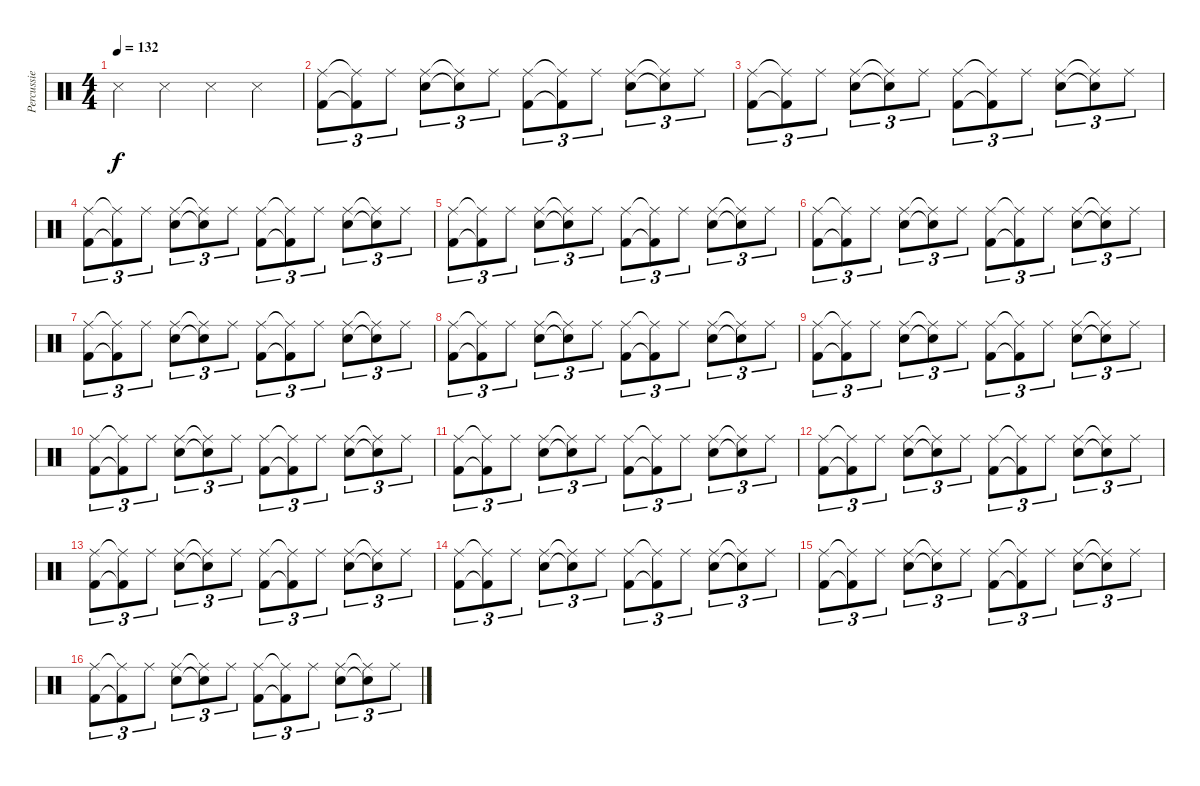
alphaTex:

\track ("Percussie" "Percussie") {instrument percussion}
\staff {score}
\articulation defaults
\ts (4 4)
\tempo 132
\clef neutral
\ks c "Snare (side stick) 3".4{dy f} "Snare (side stick) 3".4 "Snare (side stick) 3".4 "Snare (side stick) 3".4
|
("Kick (hit) 2" "Ride (middle)").8{tu (3 2)} ("Kick (hit) 2"{t} "Ride (middle)"{t}).8{tu (3 2)} "Ride (middle)".8{tu (3 2)} ("Electric Snare (hit)" "Ride (middle)").8{tu (3 2)} ("Electric Snare (hit)"{t} "Ride (middle)"{t}).8{tu (3 2)} "Ride (middle)".8{tu (3 2)} ("Kick (hit) 2" "Ride (middle)").8{tu (3 2)} ("Kick (hit) 2"{t} "Ride (middle)"{t}).8{tu (3 2)} "Ride (middle)".8{tu (3 2)} ("Electric Snare (hit)" "Ride (middle)").8{tu (3 2)} ("Electric Snare (hit)"{t} "Ride (middle)"{t}).8{tu (3 2)} "Ride (middle)".8{tu (3 2)} |
("Kick (hit) 2" "Ride (middle)").8{tu (3 2)} ("Kick (hit) 2"{t} "Ride (middle)"{t}).8{tu (3 2)} "Ride (middle)".8{tu (3 2)} ("Electric Snare (hit)" "Ride (middle)").8{tu (3 2)} ("Electric Snare (hit)"{t} "Ride (middle)"{t}).8{tu (3 2)} "Ride (middle)".8{tu (3 2)} ("Kick (hit) 2" "Ride (middle)").8{tu (3 2)} ("Kick (hit) 2"{t} "Ride (middle)"{t}).8{tu (3 2)} "Ride (middle)".8{tu (3 2)} ("Electric Snare (hit)" "Ride (middle)").8{tu (3 2)} ("Electric Snare (hit)"{t} "Ride (middle)"{t}).8{tu (3 2)} "Ride (middle)".8{tu (3 2)} |
("Kick (hit) 2" "Ride (middle)").8{tu (3 2)} ("Kick (hit) 2"{t} "Ride (middle)"{t}).8{tu (3 2)} "Ride (middle)".8{tu (3 2)} ("Electric Snare (hit)" "Ride (middle)").8{tu (3 2)} ("Electric Snare (hit)"{t} "Ride (middle)"{t}).8{tu (3 2)} "Ride (middle)".8{tu (3 2)} ("Kick (hit) 2" "Ride (middle)").8{tu (3 2)} ("Kick (hit) 2"{t} "Ride (middle)"{t}).8{tu (3 2)} "Ride (middle)".8{tu (3 2)} ("Electric Snare (hit)" "Ride (middle)").8{tu (3 2)} ("Electric Snare (hit)"{t} "Ride (middle)"{t}).8{tu (3 2)} "Ride (middle)".8{tu (3 2)} |
("Kick (hit) 2" "Ride (middle)").8{tu (3 2)} ("Kick (hit) 2"{t} "Ride (middle)"{t}).8{tu (3 2)} "Ride (middle)".8{tu (3 2)} ("Electric Snare (hit)" "Ride (middle)").8{tu (3 2)} ("Electric Snare (hit)"{t} "Ride (middle)"{t}).8{tu (3 2)} "Ride (middle)".8{tu (3 2)} ("Kick (hit) 2" "Ride (middle)").8{tu (3 2)} ("Kick (hit) 2"{t} "Ride (middle)"{t}).8{tu (3 2)} "Ride (middle)".8{tu (3 2)} ("Electric Snare (hit)" "Ride (middle)").8{tu (3 2)} ("Electric Snare (hit)"{t} "Ride (middle)"{t}).8{tu (3 2)} "Ride (middle)".8{tu (3 2)} |
("Kick (hit) 2" "Ride (middle)").8{tu (3 2)} ("Kick (hit) 2"{t} "Ride (middle)"{t}).8{tu (3 2)} "Ride (middle)".8{tu (3 2)} ("Electric Snare (hit)" "Ride (middle)").8{tu (3 2)} ("Electric Snare (hit)"{t} "Ride (middle)"{t}).8{tu (3 2)} "Ride (middle)".8{tu (3 2)} ("Kick (hit) 2" "Ride (middle)").8{tu (3 2)} ("Kick (hit) 2"{t} "Ride (middle)"{t}).8{tu (3 2)} "Ride (middle)".8{tu (3 2)} ("Electric Snare (hit)" "Ride (middle)").8{tu (3 2)} ("Electric Snare (hit)"{t} "Ride (middle)"{t}).8{tu (3 2)} "Ride (middle)".8{tu (3 2)} |
("Kick (hit) 2" "Ride (middle)").8{tu (3 2)} ("Kick (hit) 2"{t} "Ride (middle)"{t}).8{tu (3 2)} "Ride (middle)".8{tu (3 2)} ("Electric Snare (hit)" "Ride (middle)").8{tu (3 2)} ("Electric Snare (hit)"{t} "Ride (middle)"{t}).8{tu (3 2)} "Ride (middle)".8{tu (3 2)} ("Kick (hit) 2" "Ride (middle)").8{tu (3 2)} ("Kick (hit) 2"{t} "Ride (middle)"{t}).8{tu (3 2)} "Ride (middle)".8{tu (3 2)} ("Electric Snare (hit)" "Ride (middle)").8{tu (3 2)} ("Electric Snare (hit)"{t} "Ride (middle)"{t}).8{tu (3 2)} "Ride (middle)".8{tu (3 2)} |
("Kick (hit) 2" "Ride (middle)").8{tu (3 2)} ("Kick (hit) 2"{t} "Ride (middle)"{t}).8{tu (3 2)} "Ride (middle)".8{tu (3 2)} ("Electric Snare (hit)" "Ride (middle)").8{tu (3 2)} ("Electric Snare (hit)"{t} "Ride (middle)"{t}).8{tu (3 2)} "Ride (middle)".8{tu (3 2)} ("Kick (hit) 2" "Ride (middle)").8{tu (3 2)} ("Kick (hit) 2"{t} "Ride (middle)"{t}).8{tu (3 2)} "Ride (middle)".8{tu (3 2)} ("Electric Snare (hit)" "Ride (middle)").8{tu (3 2)} ("Electric Snare (hit)"{t} "Ride (middle)"{t}).8{tu (3 2)} "Ride (middle)".8{tu (3 2)} |
("Kick (hit) 2" "Ride (middle)").8{tu (3 2)} ("Kick (hit) 2"{t} "Ride (middle)"{t}).8{tu (3 2)} "Ride (middle)".8{tu (3 2)} ("Electric Snare (hit)" "Ride (middle)").8{tu (3 2)} ("Electric Snare (hit)"{t} "Ride (middle)"{t}).8{tu (3 2)} "Ride (middle)".8{tu (3 2)} ("Kick (hit) 2" "Ride (middle)").8{tu (3 2)} ("Kick (hit) 2"{t} "Ride (middle)"{t}).8{tu (3 2)} "Ride (middle)".8{tu (3 2)} ("Electric Snare (hit)" "Ride (middle)").8{tu (3 2)} ("Electric Snare (hit)"{t} "Ride (middle)"{t}).8{tu (3 2)} "Ride (middle)".8{tu (3 2)} |
("Kick (hit) 2" "Ride (middle)").8{tu (3 2)} ("Kick (hit) 2"{t} "Ride (middle)"{t}).8{tu (3 2)} "Ride (middle)".8{tu (3 2)} ("Electric Snare (hit)" "Ride (middle)").8{tu (3 2)} ("Electric Snare (hit)"{t} "Ride (middle)"{t}).8{tu (3 2)} "Ride (middle)".8{tu (3 2)} ("Kick (hit) 2" "Ride (middle)").8{tu (3 2)} ("Kick (hit) 2"{t} "Ride (middle)"{t}).8{tu (3 2)} "Ride (middle)".8{tu (3 2)} ("Electric Snare (hit)" "Ride (middle)").8{tu (3 2)} ("Electric Snare (hit)"{t} "Ride (middle)"{t}).8{tu (3 2)} "Ride (middle)".8{tu (3 2)} |
("Kick (hit) 2" "Ride (middle)").8{tu (3 2)} ("Kick (hit) 2"{t} "Ride (middle)"{t}).8{tu (3 2)} "Ride (middle)".8{tu (3 2)} ("Electric Snare (hit)" "Ride (middle)").8{tu (3 2)} ("Electric Snare (hit)"{t} "Ride (middle)"{t}).8{tu (3 2)} "Ride (middle)".8{tu (3 2)} ("Kick (hit) 2" "Ride (middle)").8{tu (3 2)} ("Kick (hit) 2"{t} "Ride (middle)"{t}).8{tu (3 2)} "Ride (middle)".8{tu (3 2)} ("Electric Snare (hit)" "Ride (middle)").8{tu (3 2)} ("Electric Snare (hit)"{t} "Ride (middle)"{t}).8{tu (3 2)} "Ride (middle)".8{tu (3 2)} |
("Kick (hit) 2" "Ride (middle)").8{tu (3 2)} ("Kick (hit) 2"{t} "Ride (middle)"{t}).8{tu (3 2)} "Ride (middle)".8{tu (3 2)} ("Electric Snare (hit)" "Ride (middle)").8{tu (3 2)} ("Electric Snare (hit)"{t} "Ride (middle)"{t}).8{tu (3 2)} "Ride (middle)".8{tu (3 2)} ("Kick (hit) 2" "Ride (middle)").8{tu (3 2)} ("Kick (hit) 2"{t} "Ride (middle)"{t}).8{tu (3 2)} "Ride (middle)".8{tu (3 2)} ("Electric Snare (hit)" "Ride (middle)").8{tu (3 2)} ("Electric Snare (hit)"{t} "Ride (middle)"{t}).8{tu (3 2)} "Ride (middle)".8{tu (3 2)} |
("Kick (hit) 2" "Ride (middle)").8{tu (3 2)} ("Kick (hit) 2"{t} "Ride (middle)"{t}).8{tu (3 2)} "Ride (middle)".8{tu (3 2)} ("Electric Snare (hit)" "Ride (middle)").8{tu (3 2)} ("Electric Snare (hit)"{t} "Ride (middle)"{t}).8{tu (3 2)} "Ride (middle)".8{tu (3 2)} ("Kick (hit) 2" "Ride (middle)").8{tu (3 2)} ("Kick (hit) 2"{t} "Ride (middle)"{t}).8{tu (3 2)} "Ride (middle)".8{tu (3 2)} ("Electric Snare (hit)" "Ride (middle)").8{tu (3 2)} ("Electric Snare (hit)"{t} "Ride (middle)"{t}).8{tu (3 2)} "Ride (middle)".8{tu (3 2)} |
("Kick (hit) 2" "Ride (middle)").8{tu (3 2)} ("Kick (hit) 2"{t} "Ride (middle)"{t}).8{tu (3 2)} "Ride (middle)".8{tu (3 2)} ("Electric Snare (hit)" "Ride (middle)").8{tu (3 2)} ("Electric Snare (hit)"{t} "Ride (middle)"{t}).8{tu (3 2)} "Ride (middle)".8{tu (3 2)} ("Kick (hit) 2" "Ride (middle)").8{tu (3 2)} ("Kick (hit) 2"{t} "Ride (middle)"{t}).8{tu (3 2)} "Ride (middle)".8{tu (3 2)} ("Electric Snare (hit)" "Ride (middle)").8{tu (3 2)} ("Electric Snare (hit)"{t} "Ride (middle)"{t}).8{tu (3 2)} "Ride (middle)".8{tu (3 2)} |
("Kick (hit) 2" "Ride (middle)").8{tu (3 2)} ("Kick (hit) 2"{t} "Ride (middle)"{t}).8{tu (3 2)} "Ride (middle)".8{tu (3 2)} ("Electric Snare (hit)" "Ride (middle)").8{tu (3 2)} ("Electric Snare (hit)"{t} "Ride (middle)"{t}).8{tu (3 2)} "Ride (middle)".8{tu (3 2)} ("Kick (hit) 2" "Ride (middle)").8{tu (3 2)} ("Kick (hit) 2"{t} "Ride (middle)"{t}).8{tu (3 2)} "Ride (middle)".8{tu (3 2)} ("Electric Snare (hit)" "Ride (middle)").8{tu (3 2)} ("Electric Snare (hit)"{t} "Ride (middle)"{t}).8{tu (3 2)} "Ride (middle)".8{tu (3 2)} |
("Kick (hit) 2" "Ride (middle)").8{tu (3 2)} ("Kick (hit) 2"{t} "Ride (middle)"{t}).8{tu (3 2)} "Ride (middle)".8{tu (3 2)} ("Electric Snare (hit)" "Ride (middle)").8{tu (3 2)} ("Electric Snare (hit)"{t} "Ride (middle)"{t}).8{tu (3 2)} "Ride (middle)".8{tu (3 2)} ("Kick (hit) 2" "Ride (middle)").8{tu (3 2)} ("Kick (hit) 2"{t} "Ride (middle)"{t}).8{tu (3 2)} "Ride (middle)".8{tu (3 2)} ("Electric Snare (hit)" "Ride (middle)").8{tu (3 2)} ("Electric Snare (hit)"{t} "Ride (middle)"{t}).8{tu (3 2)} "Ride (middle)".8{tu (3 2)}
